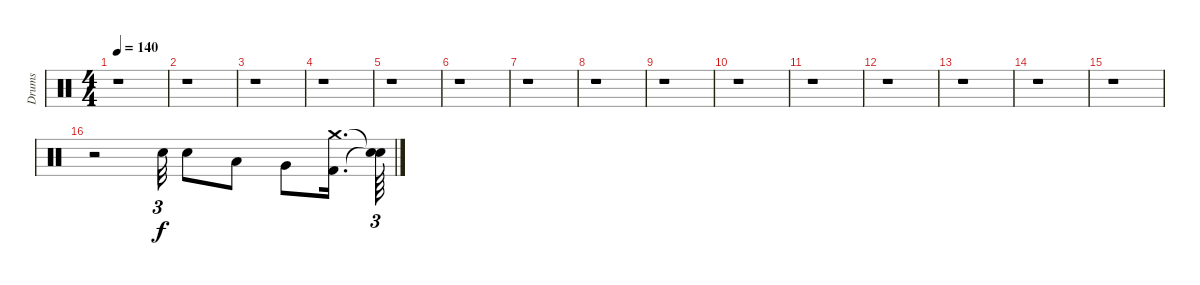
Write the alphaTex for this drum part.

\track ("Drums" "Drums") {instrument percussion}
\staff {score}
\articulation defaults
\ts (4 4)
\tempo 140
\clef neutral
\ks c
r.1{dy f} |
r.1 |
r.1 |
r.1 |
r.1 |
r.1 |
r.1 |
r.1 |
r.1 |
r.1 |
r.1 |
r.1 |
r.1 |
r.1 |
r.1 |
r.2 "Snare (hit) 2".32{tu (3 2)} "Snare (hit) 2".8 "Low Tom (hit)".8 "Very Low Tom (hit)".8 ("Crash medium (hit)" "Kick (hit) 2").16{d} ("Snare (hit)"{t} "Snare (hit)"{t}).64{tu (3 2)}
